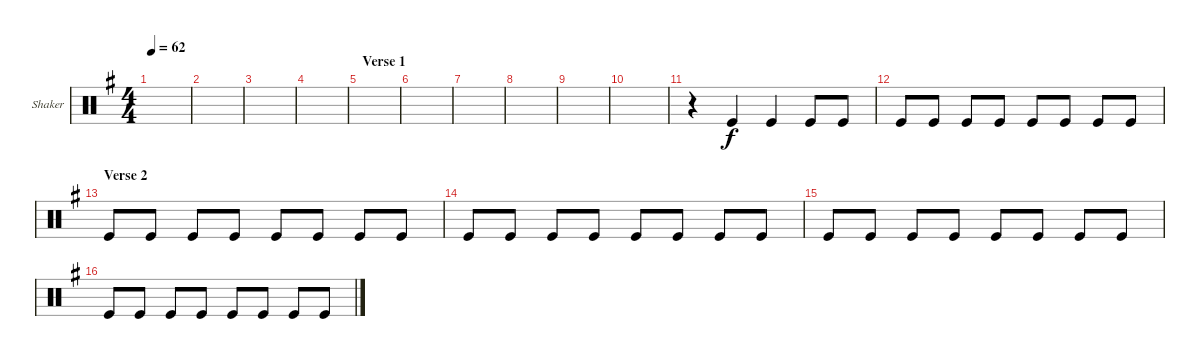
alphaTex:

\defaultSystemsLayout 4
\bracketExtendMode groupsimilarinstruments
\firstSystemTrackNameOrientation horizontal
\otherSystemsTrackNameOrientation horizontal
\track ("Shaker" "Shaker") {mute instrument percussion}
\staff {score}
\articulation defaults
\ts (4 4)
\tempo 62
\clef neutral
\scale
0.333333
\ks g
|
\scale
0.333333 |
\scale
0.333333 |
\scale
0.333333 |
\section ("" "Verse 1")
\scale
0.333333 |
\scale
0.333333 |
\scale
0.333333 |
\scale
0.333333 |
\scale
0.333333 |
\scale
0.333333 |
\scale
0.333333 r.4 "Kick (hit)".4 "Kick (hit)".4 "Kick (hit)".8 "Kick (hit)".8 |
\scale
0.333333 "Kick (hit)".8 "Kick (hit)".8 "Kick (hit)".8 "Kick (hit)".8 "Kick (hit)".8 "Kick (hit)".8 "Kick (hit)".8 "Kick (hit)".8 |
\section ("" "Verse 2")
\scale
0.333333 "Kick (hit)".8 "Kick (hit)".8 "Kick (hit)".8 "Kick (hit)".8 "Kick (hit)".8 "Kick (hit)".8 "Kick (hit)".8 "Kick (hit)".8 |
\scale
0.333333 "Kick (hit)".8 "Kick (hit)".8 "Kick (hit)".8 "Kick (hit)".8 "Kick (hit)".8 "Kick (hit)".8 "Kick (hit)".8 "Kick (hit)".8 |
\scale
0.333333 "Kick (hit)".8 "Kick (hit)".8 "Kick (hit)".8 "Kick (hit)".8 "Kick (hit)".8 "Kick (hit)".8 "Kick (hit)".8 "Kick (hit)".8 |
\scale
0.333333 "Kick (hit)".8 "Kick (hit)".8 "Kick (hit)".8 "Kick (hit)".8 "Kick (hit)".8 "Kick (hit)".8 "Kick (hit)".8 "Kick (hit)".8
